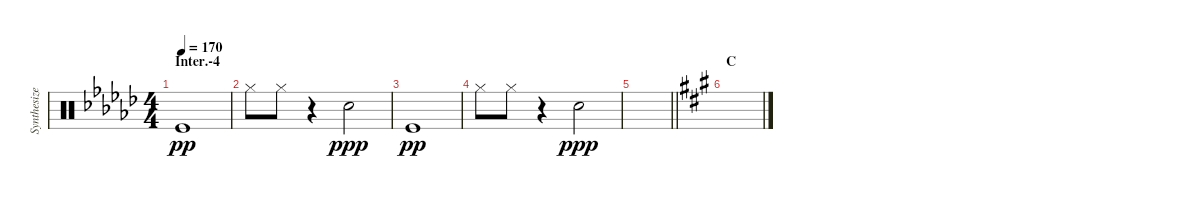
\track ("Synthesizer B" "Synthesize") {instrument percussion}
\staff {score}
\articulation defaults
\ts (4 4)
\section ("" "Inter.-4")
\tempo 170
\clef neutral
\ks gb "Kick (hit)".1{dy pp}
|
"Hi-Hat (closed)".8 "Hi-Hat (closed)".8 r.4 "Snare (hit) 2".2{dy ppp} |
"Kick (hit)".1{dy pp} |
"Hi-Hat (closed)".8 "Hi-Hat (closed)".8 r.4 "Snare (hit) 2".2{dy ppp} |
\barLineRight lightlight
|
\section ("" "C")
\ks a
